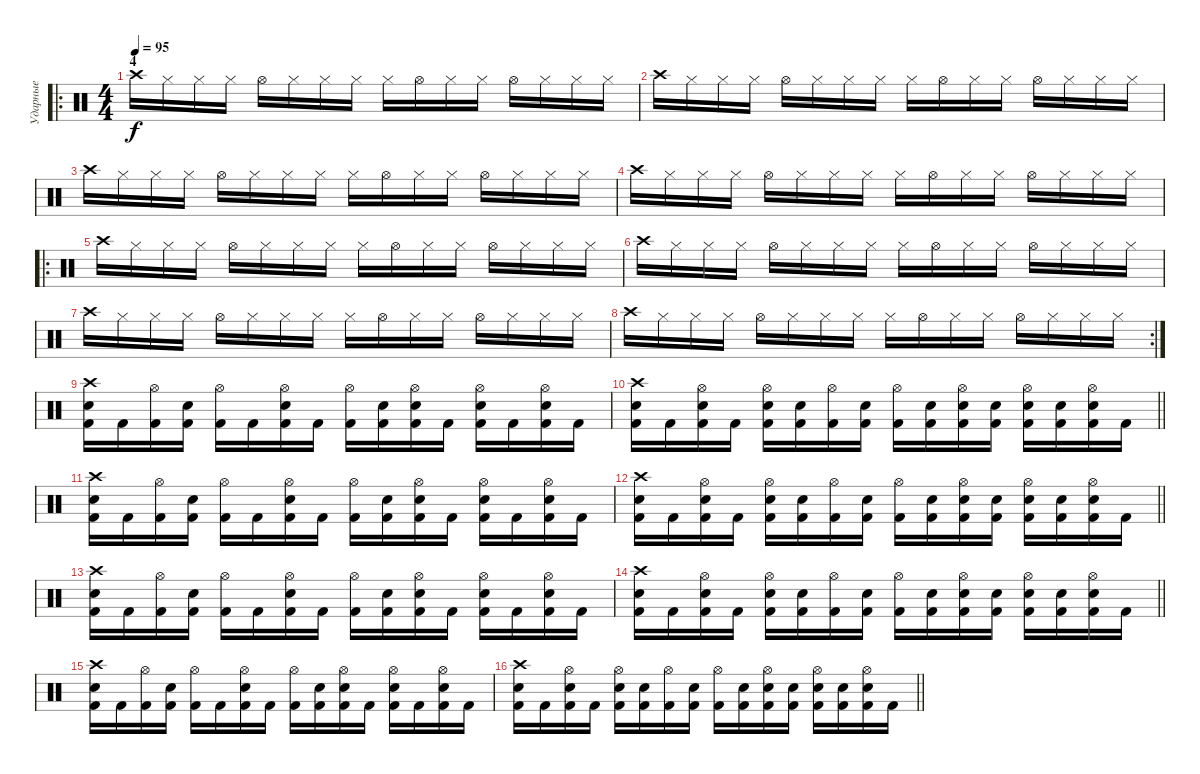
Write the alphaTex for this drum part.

\track ("Ударные" "Ударные") {instrument percussion}
\staff {score}
\articulation defaults
\ro
\ts (4 4)
\section ("" "4")
\tempo 95
\clef neutral
\ks c "Crash high (hit)".16{dy f} "Hi-Hat (closed)".16 "Hi-Hat (closed)".16 "Hi-Hat (closed)".16 "Hi-Hat (open)".16 "Hi-Hat (closed)".16 "Hi-Hat (closed)".16 "Hi-Hat (closed)".16 "Hi-Hat (closed)".16 "Hi-Hat (open)".16 "Hi-Hat (closed)".16 "Hi-Hat (closed)".16 "Hi-Hat (open)".16 "Hi-Hat (closed)".16 "Hi-Hat (closed)".16 "Hi-Hat (closed)".16
|
"Crash high (hit)".16 "Hi-Hat (closed)".16 "Hi-Hat (closed)".16 "Hi-Hat (closed)".16 "Hi-Hat (open)".16 "Hi-Hat (closed)".16 "Hi-Hat (closed)".16 "Hi-Hat (closed)".16 "Hi-Hat (closed)".16 "Hi-Hat (open)".16 "Hi-Hat (closed)".16 "Hi-Hat (closed)".16 "Hi-Hat (open)".16 "Hi-Hat (closed)".16 "Hi-Hat (closed)".16 "Hi-Hat (closed)".16 |
"Crash high (hit)".16 "Hi-Hat (closed)".16 "Hi-Hat (closed)".16 "Hi-Hat (closed)".16 "Hi-Hat (open)".16 "Hi-Hat (closed)".16 "Hi-Hat (closed)".16 "Hi-Hat (closed)".16 "Hi-Hat (closed)".16 "Hi-Hat (open)".16 "Hi-Hat (closed)".16 "Hi-Hat (closed)".16 "Hi-Hat (open)".16 "Hi-Hat (closed)".16 "Hi-Hat (closed)".16 "Hi-Hat (closed)".16 |
"Crash high (hit)".16 "Hi-Hat (closed)".16 "Hi-Hat (closed)".16 "Hi-Hat (closed)".16 "Hi-Hat (open)".16 "Hi-Hat (closed)".16 "Hi-Hat (closed)".16 "Hi-Hat (closed)".16 "Hi-Hat (closed)".16 "Hi-Hat (open)".16 "Hi-Hat (closed)".16 "Hi-Hat (closed)".16 "Hi-Hat (open)".16 "Hi-Hat (closed)".16 "Hi-Hat (closed)".16 "Hi-Hat (closed)".16 |
\ro "Crash high (hit)".16 "Hi-Hat (closed)".16 "Hi-Hat (closed)".16 "Hi-Hat (closed)".16 "Hi-Hat (open)".16 "Hi-Hat (closed)".16 "Hi-Hat (closed)".16 "Hi-Hat (closed)".16 "Hi-Hat (closed)".16 "Hi-Hat (open)".16 "Hi-Hat (closed)".16 "Hi-Hat (closed)".16 "Hi-Hat (open)".16 "Hi-Hat (closed)".16 "Hi-Hat (closed)".16 "Hi-Hat (closed)".16
|
"Crash high (hit)".16 "Hi-Hat (closed)".16 "Hi-Hat (closed)".16 "Hi-Hat (closed)".16 "Hi-Hat (open)".16 "Hi-Hat (closed)".16 "Hi-Hat (closed)".16 "Hi-Hat (closed)".16 "Hi-Hat (closed)".16 "Hi-Hat (open)".16 "Hi-Hat (closed)".16 "Hi-Hat (closed)".16 "Hi-Hat (open)".16 "Hi-Hat (closed)".16 "Hi-Hat (closed)".16 "Hi-Hat (closed)".16 |
"Crash high (hit)".16 "Hi-Hat (closed)".16 "Hi-Hat (closed)".16 "Hi-Hat (closed)".16 "Hi-Hat (open)".16 "Hi-Hat (closed)".16 "Hi-Hat (closed)".16 "Hi-Hat (closed)".16 "Hi-Hat (closed)".16 "Hi-Hat (open)".16 "Hi-Hat (closed)".16 "Hi-Hat (closed)".16 "Hi-Hat (open)".16 "Hi-Hat (closed)".16 "Hi-Hat (closed)".16 "Hi-Hat (closed)".16 |
\rc 2 "Crash high (hit)".16 "Hi-Hat (closed)".16 "Hi-Hat (closed)".16 "Hi-Hat (closed)".16 "Hi-Hat (open)".16 "Hi-Hat (closed)".16 "Hi-Hat (closed)".16 "Hi-Hat (closed)".16 "Hi-Hat (closed)".16 "Hi-Hat (open)".16 "Hi-Hat (closed)".16 "Hi-Hat (closed)".16 "Hi-Hat (open)".16 "Hi-Hat (closed)".16 "Hi-Hat (closed)".16 "Hi-Hat (closed)".16
|
("Crash high (hit)" "Electric Snare (hit)" "Kick (hit) 2").16 "Kick (hit) 2".16 ("Hi-Hat (open)" "Kick (hit) 2").16 ("Electric Snare (hit)" "Kick (hit) 2").16 ("Hi-Hat (open)" "Kick (hit) 2").16 "Kick (hit) 2".16 ("Hi-Hat (open)" "Electric Snare (hit)" "Kick (hit) 2").16 "Kick (hit) 2".16 ("Hi-Hat (open)" "Kick (hit) 2").16 ("Electric Snare (hit)" "Kick (hit) 2").16 ("Hi-Hat (open)" "Electric Snare (hit)" "Kick (hit) 2").16 "Kick (hit) 2".16 ("Hi-Hat (open)" "Electric Snare (hit)" "Kick (hit) 2").16 "Kick (hit) 2".16 ("Hi-Hat (open)" "Electric Snare (hit)" "Kick (hit) 2").16 "Kick (hit) 2".16 |
\barLineRight lightlight
("Crash high (hit)" "Electric Snare (hit)" "Kick (hit) 2").16 "Kick (hit) 2".16 ("Hi-Hat (open)" "Electric Snare (hit)" "Kick (hit) 2").16 "Kick (hit) 2".16 ("Hi-Hat (open)" "Electric Snare (hit)" "Kick (hit) 2").16 ("Electric Snare (hit)" "Kick (hit) 2").16 ("Hi-Hat (open)" "Kick (hit) 2").16 ("Electric Snare (hit)" "Kick (hit) 2").16 ("Hi-Hat (open)" "Kick (hit) 2").16 ("Electric Snare (hit)" "Kick (hit) 2").16 ("Hi-Hat (open)" "Electric Snare (hit)" "Kick (hit) 2").16 ("Electric Snare (hit)" "Kick (hit) 2").16 ("Hi-Hat (open)" "Electric Snare (hit)" "Kick (hit) 2").16 ("Electric Snare (hit)" "Kick (hit) 2").16 ("Hi-Hat (open)" "Electric Snare (hit)" "Kick (hit) 2").16 "Kick (hit) 2".16 |
("Crash high (hit)" "Electric Snare (hit)" "Kick (hit) 2").16 "Kick (hit) 2".16 ("Hi-Hat (open)" "Kick (hit) 2").16 ("Electric Snare (hit)" "Kick (hit) 2").16 ("Hi-Hat (open)" "Kick (hit) 2").16 "Kick (hit) 2".16 ("Hi-Hat (open)" "Electric Snare (hit)" "Kick (hit) 2").16 "Kick (hit) 2".16 ("Hi-Hat (open)" "Kick (hit) 2").16 ("Electric Snare (hit)" "Kick (hit) 2").16 ("Hi-Hat (open)" "Electric Snare (hit)" "Kick (hit) 2").16 "Kick (hit) 2".16 ("Hi-Hat (open)" "Electric Snare (hit)" "Kick (hit) 2").16 "Kick (hit) 2".16 ("Hi-Hat (open)" "Electric Snare (hit)" "Kick (hit) 2").16 "Kick (hit) 2".16 |
\barLineRight lightlight
("Crash high (hit)" "Electric Snare (hit)" "Kick (hit) 2").16 "Kick (hit) 2".16 ("Hi-Hat (open)" "Electric Snare (hit)" "Kick (hit) 2").16 "Kick (hit) 2".16 ("Hi-Hat (open)" "Electric Snare (hit)" "Kick (hit) 2").16 ("Electric Snare (hit)" "Kick (hit) 2").16 ("Hi-Hat (open)" "Kick (hit) 2").16 ("Electric Snare (hit)" "Kick (hit) 2").16 ("Hi-Hat (open)" "Kick (hit) 2").16 ("Electric Snare (hit)" "Kick (hit) 2").16 ("Hi-Hat (open)" "Electric Snare (hit)" "Kick (hit) 2").16 ("Electric Snare (hit)" "Kick (hit) 2").16 ("Hi-Hat (open)" "Electric Snare (hit)" "Kick (hit) 2").16 ("Electric Snare (hit)" "Kick (hit) 2").16 ("Hi-Hat (open)" "Electric Snare (hit)" "Kick (hit) 2").16 "Kick (hit) 2".16 |
("Crash high (hit)" "Electric Snare (hit)" "Kick (hit) 2").16 "Kick (hit) 2".16 ("Hi-Hat (open)" "Kick (hit) 2").16 ("Electric Snare (hit)" "Kick (hit) 2").16 ("Hi-Hat (open)" "Kick (hit) 2").16 "Kick (hit) 2".16 ("Hi-Hat (open)" "Electric Snare (hit)" "Kick (hit) 2").16 "Kick (hit) 2".16 ("Hi-Hat (open)" "Kick (hit) 2").16 ("Electric Snare (hit)" "Kick (hit) 2").16 ("Hi-Hat (open)" "Electric Snare (hit)" "Kick (hit) 2").16 "Kick (hit) 2".16 ("Hi-Hat (open)" "Electric Snare (hit)" "Kick (hit) 2").16 "Kick (hit) 2".16 ("Hi-Hat (open)" "Electric Snare (hit)" "Kick (hit) 2").16 "Kick (hit) 2".16 |
\barLineRight lightlight
("Crash high (hit)" "Electric Snare (hit)" "Kick (hit) 2").16 "Kick (hit) 2".16 ("Hi-Hat (open)" "Electric Snare (hit)" "Kick (hit) 2").16 "Kick (hit) 2".16 ("Hi-Hat (open)" "Electric Snare (hit)" "Kick (hit) 2").16 ("Electric Snare (hit)" "Kick (hit) 2").16 ("Hi-Hat (open)" "Kick (hit) 2").16 ("Electric Snare (hit)" "Kick (hit) 2").16 ("Hi-Hat (open)" "Kick (hit) 2").16 ("Electric Snare (hit)" "Kick (hit) 2").16 ("Hi-Hat (open)" "Electric Snare (hit)" "Kick (hit) 2").16 ("Electric Snare (hit)" "Kick (hit) 2").16 ("Hi-Hat (open)" "Electric Snare (hit)" "Kick (hit) 2").16 ("Electric Snare (hit)" "Kick (hit) 2").16 ("Hi-Hat (open)" "Electric Snare (hit)" "Kick (hit) 2").16 "Kick (hit) 2".16 |
("Crash high (hit)" "Electric Snare (hit)" "Kick (hit) 2").16 "Kick (hit) 2".16 ("Hi-Hat (open)" "Kick (hit) 2").16 ("Electric Snare (hit)" "Kick (hit) 2").16 ("Hi-Hat (open)" "Kick (hit) 2").16 "Kick (hit) 2".16 ("Hi-Hat (open)" "Electric Snare (hit)" "Kick (hit) 2").16 "Kick (hit) 2".16 ("Hi-Hat (open)" "Kick (hit) 2").16 ("Electric Snare (hit)" "Kick (hit) 2").16 ("Hi-Hat (open)" "Electric Snare (hit)" "Kick (hit) 2").16 "Kick (hit) 2".16 ("Hi-Hat (open)" "Electric Snare (hit)" "Kick (hit) 2").16 "Kick (hit) 2".16 ("Hi-Hat (open)" "Electric Snare (hit)" "Kick (hit) 2").16 "Kick (hit) 2".16 |
\barLineRight lightlight
("Crash high (hit)" "Electric Snare (hit)" "Kick (hit) 2").16 "Kick (hit) 2".16 ("Hi-Hat (open)" "Electric Snare (hit)" "Kick (hit) 2").16 "Kick (hit) 2".16 ("Hi-Hat (open)" "Electric Snare (hit)" "Kick (hit) 2").16 ("Electric Snare (hit)" "Kick (hit) 2").16 ("Hi-Hat (open)" "Kick (hit) 2").16 ("Electric Snare (hit)" "Kick (hit) 2").16 ("Hi-Hat (open)" "Kick (hit) 2").16 ("Electric Snare (hit)" "Kick (hit) 2").16 ("Hi-Hat (open)" "Electric Snare (hit)" "Kick (hit) 2").16 ("Electric Snare (hit)" "Kick (hit) 2").16 ("Hi-Hat (open)" "Electric Snare (hit)" "Kick (hit) 2").16 ("Electric Snare (hit)" "Kick (hit) 2").16 ("Hi-Hat (open)" "Electric Snare (hit)" "Kick (hit) 2").16 "Kick (hit) 2".16
